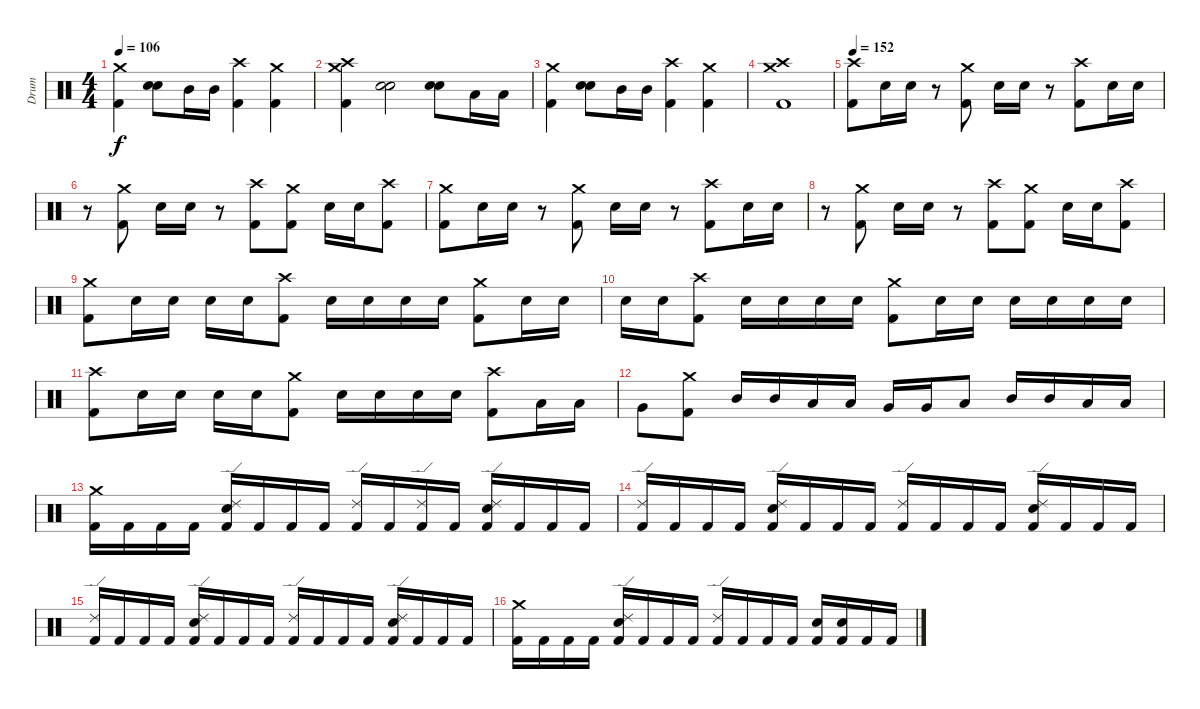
\track ("Drum" "Drum") {instrument percussion}
\staff {score}
\articulation defaults
\ts (4 4)
\tempo 106
\clef neutral
\ks c
("Crash medium (hit)" "Kick (hit) 2").4{dy f} ("Snare (hit) 2" "Snare (hit) 2").8 "Mid Tom (hit)".16 "Mid Tom (hit)".16 ("Crash high (hit)" "Kick (hit) 2").4 ("Crash medium (hit)" "Kick (hit) 2").4 |
("Crash high (hit)" "Crash medium (hit)" "Kick (hit) 2").4 ("Snare (hit) 2" "Snare (hit) 2").2 ("Snare (hit) 2" "Snare (hit) 2").8 "Low Tom (hit)".16 "Low Tom (hit)".16 |
("Crash medium (hit)" "Kick (hit) 2").4 ("Snare (hit) 2" "Snare (hit) 2").8 "Mid Tom (hit)".16 "Mid Tom (hit)".16 ("Crash high (hit)" "Kick (hit) 2").4 ("Crash medium (hit)" "Kick (hit) 2").4 |
("Crash medium (hit)" "Crash high (hit)" "Kick (hit) 2").1 |
\tempo 152
("Crash high (hit)" "Kick (hit) 2").8 "Snare (hit) 2".16 "Snare (hit) 2".16 r.8 ("Crash medium (hit)" "Kick (hit) 2").8 "Snare (hit) 2".16 "Snare (hit) 2".16 r.8 ("Crash high (hit)" "Kick (hit) 2").8 "Snare (hit) 2".16 "Snare (hit) 2".16 |
r.8 ("Crash medium (hit)" "Kick (hit) 2").8 "Snare (hit) 2".16 "Snare (hit) 2".16 r.8 ("Crash high (hit)" "Kick (hit) 2").8 ("Crash medium (hit)" "Kick (hit) 2").8 "Snare (hit) 2".16 "Snare (hit) 2".16 ("Crash high (hit)" "Kick (hit) 2").8 |
("Crash medium (hit)" "Kick (hit) 2").8 "Snare (hit) 2".16 "Snare (hit) 2".16 r.8 ("Crash medium (hit)" "Kick (hit) 2").8 "Snare (hit) 2".16 "Snare (hit) 2".16 r.8 ("Crash high (hit)" "Kick (hit) 2").8 "Snare (hit) 2".16 "Snare (hit) 2".16 |
r.8 ("Crash medium (hit)" "Kick (hit) 2").8 "Snare (hit) 2".16 "Snare (hit) 2".16 r.8 ("Crash high (hit)" "Kick (hit) 2").8 ("Crash medium (hit)" "Kick (hit) 2").8 "Snare (hit) 2".16 "Snare (hit) 2".16 ("Crash high (hit)" "Kick (hit) 2").8 |
("Crash medium (hit)" "Kick (hit) 2").8 "Snare (hit) 2".16 "Snare (hit) 2".16 "Snare (hit) 2".16 "Snare (hit) 2".16 ("Crash high (hit)" "Kick (hit) 2").8 "Snare (hit) 2".16 "Snare (hit) 2".16 "Snare (hit) 2".16 "Snare (hit) 2".16 ("Crash medium (hit)" "Kick (hit) 2").8 "Snare (hit) 2".16 "Snare (hit) 2".16 |
"Snare (hit) 2".16 "Snare (hit) 2".16 ("Crash high (hit)" "Kick (hit) 2").8 "Snare (hit) 2".16 "Snare (hit) 2".16 "Snare (hit) 2".16 "Snare (hit) 2".16 ("Crash medium (hit)" "Kick (hit) 2").8 "Snare (hit) 2".16 "Snare (hit) 2".16 "Snare (hit) 2".16 "Snare (hit) 2".16 "Snare (hit) 2".16 "Snare (hit) 2".16 |
("Crash high (hit)" "Kick (hit) 2").8 "Snare (hit) 2".16 "Snare (hit) 2".16 "Snare (hit) 2".16 "Snare (hit) 2".16 ("Crash medium (hit)" "Kick (hit) 2").8 "Snare (hit) 2".16 "Snare (hit) 2".16 "Snare (hit) 2".16 "Snare (hit) 2".16 ("Crash high (hit)" "Kick (hit) 2").8 "Low Tom (hit)".16 "Low Tom (hit)".16 |
"Very Low Tom (hit)".8 ("Crash medium (hit)" "Kick (hit) 2").8 "Mid Tom (hit)".16 "Mid Tom (hit)".16 "Low Tom (hit)".16 "Low Tom (hit)".16 "Very Low Tom (hit)".16 "Very Low Tom (hit)".16 "Low Floor Tom (hit)".8 "Mid Tom (hit)".16 "Mid Tom (hit)".16 "Low Tom (hit)".16 "Low Tom (hit)".16 |
("Crash medium (hit)" "Kick (hit) 2").16 "Kick (hit) 2".16 "Kick (hit) 2".16 "Kick (hit) 2".16 ("Ride (edge) 2" "Snare (hit) 2" "Kick (hit) 2").16 "Kick (hit) 2".16 "Kick (hit) 2".16 "Kick (hit) 2".16 ("Ride (edge) 2" "Kick (hit) 2").16 "Kick (hit) 2".16 ("Ride (edge) 2" "Kick (hit) 2").16 "Kick (hit) 2".16 ("Ride (edge) 2" "Snare (hit) 2" "Kick (hit) 2").16 "Kick (hit) 2".16 "Kick (hit) 2".16 "Kick (hit) 2".16 |
("Ride (edge) 2" "Kick (hit) 2").16 "Kick (hit) 2".16 "Kick (hit) 2".16 "Kick (hit) 2".16 ("Ride (edge) 2" "Snare (hit) 2" "Kick (hit) 2").16 "Kick (hit) 2".16 "Kick (hit) 2".16 "Kick (hit) 2".16 ("Ride (edge) 2" "Kick (hit) 2").16 "Kick (hit) 2".16 "Kick (hit) 2".16 "Kick (hit) 2".16 ("Ride (edge) 2" "Snare (hit) 2" "Kick (hit) 2").16 "Kick (hit) 2".16 "Kick (hit) 2".16 "Kick (hit) 2".16 |
("Ride (edge) 2" "Kick (hit) 2").16 "Kick (hit) 2".16 "Kick (hit) 2".16 "Kick (hit) 2".16 ("Ride (edge) 2" "Snare (hit) 2" "Kick (hit) 2").16 "Kick (hit) 2".16 "Kick (hit) 2".16 "Kick (hit) 2".16 ("Ride (edge) 2" "Kick (hit) 2").16 "Kick (hit) 2".16 "Kick (hit) 2".16 "Kick (hit) 2".16 ("Ride (edge) 2" "Snare (hit) 2" "Kick (hit) 2").16 "Kick (hit) 2".16 "Kick (hit) 2".16 "Kick (hit) 2".16 |
("Crash medium (hit)" "Kick (hit) 2").16 "Kick (hit) 2".16 "Kick (hit) 2".16 "Kick (hit) 2".16 ("Ride (edge) 2" "Snare (hit) 2" "Kick (hit) 2").16 "Kick (hit) 2".16 "Kick (hit) 2".16 "Kick (hit) 2".16 ("Ride (edge) 2" "Kick (hit) 2").16 "Kick (hit) 2".16 "Kick (hit) 2".16 "Kick (hit) 2".16 ("Snare (hit) 2" "Kick (hit) 2").16 ("Snare (hit) 2" "Kick (hit) 2").16 "Kick (hit) 2".16 "Kick (hit) 2".16
